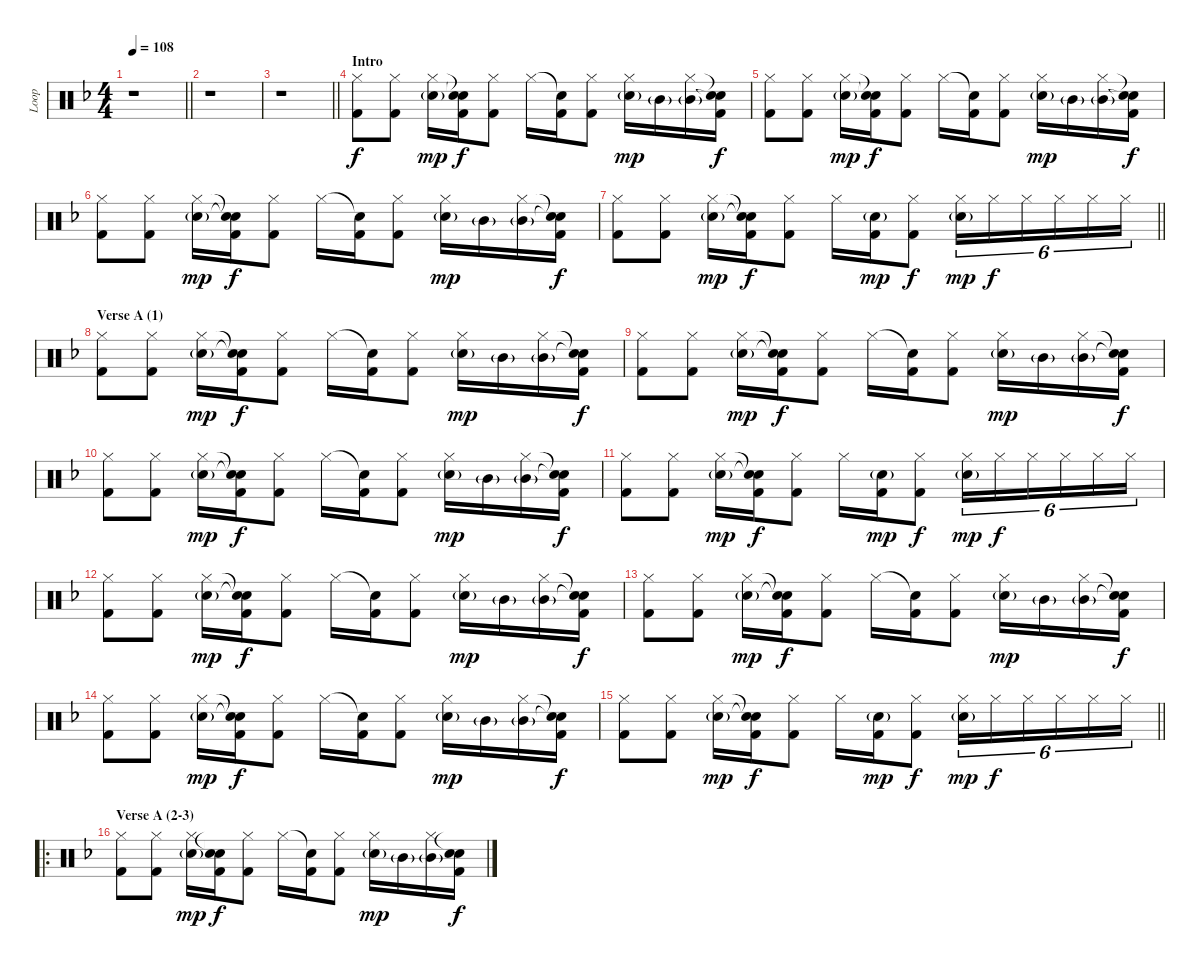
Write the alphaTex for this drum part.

\track ("Loop" "Loop") {instrument percussion}
\staff {score}
\articulation defaults
\ts (4 4)
\tempo 108
\clef neutral
\barLineRight lightlight
\ks dminor
r.1{dy f} |
r.1 |
\barLineRight lightlight
r.1 |
\section ("" "Intro")
("Hi-Hat (closed)" "Kick (hit) 2").8 ("Hi-Hat (closed)" "Kick (hit) 2").8 ("Hi-Hat (closed)" "Electric Snare (hit)"{g}).16{dy mp} ("Snare (hit)"{t} "Snare (hit)"{t} "Kick (hit) 2").16{dy f} ("Hi-Hat (closed)" "Kick (hit) 2").8 "Hi-Hat (closed)".16 ("Snare (hit)"{t} "Kick (hit) 2").16 ("Hi-Hat (closed)" "Kick (hit) 2").8 ("Hi-Hat (closed)" "Electric Snare (hit)"{g}).16{dy mp} "Mid Tom (hit)"{g}.16 ("Hi-Hat (closed)" "Mid Tom (hit)"{g}).16 ("Snare (hit)"{t} "Snare (hit)"{t} "Kick (hit) 2").16{dy f} |
("Hi-Hat (closed)" "Kick (hit) 2").8 ("Hi-Hat (closed)" "Kick (hit) 2").8 ("Hi-Hat (closed)" "Electric Snare (hit)"{g}).16{dy mp} ("Snare (hit)"{t} "Snare (hit)"{t} "Kick (hit) 2").16{dy f} ("Hi-Hat (closed)" "Kick (hit) 2").8 "Hi-Hat (closed)".16 ("Snare (hit)"{t} "Kick (hit) 2").16 ("Hi-Hat (closed)" "Kick (hit) 2").8 ("Hi-Hat (closed)" "Electric Snare (hit)"{g}).16{dy mp} "Mid Tom (hit)"{g}.16 ("Hi-Hat (closed)" "Mid Tom (hit)"{g}).16 ("Snare (hit)"{t} "Snare (hit)"{t} "Kick (hit) 2").16{dy f} |
("Hi-Hat (closed)" "Kick (hit) 2").8 ("Hi-Hat (closed)" "Kick (hit) 2").8 ("Hi-Hat (closed)" "Electric Snare (hit)"{g}).16{dy mp} ("Snare (hit)"{t} "Snare (hit)"{t} "Kick (hit) 2").16{dy f} ("Hi-Hat (closed)" "Kick (hit) 2").8 "Hi-Hat (closed)".16 ("Snare (hit)"{t} "Kick (hit) 2").16 ("Hi-Hat (closed)" "Kick (hit) 2").8 ("Hi-Hat (closed)" "Electric Snare (hit)"{g}).16{dy mp} "Mid Tom (hit)"{g}.16 ("Hi-Hat (closed)" "Mid Tom (hit)"{g}).16 ("Snare (hit)"{t} "Snare (hit)"{t} "Kick (hit) 2").16{dy f} |
\barLineRight lightlight
("Hi-Hat (closed)" "Kick (hit) 2").8 ("Hi-Hat (closed)" "Kick (hit) 2").8 ("Hi-Hat (closed)" "Electric Snare (hit)"{g}).16{dy mp} ("Snare (hit)"{t} "Snare (hit)"{t} "Kick (hit) 2").16{dy f} ("Hi-Hat (closed)" "Kick (hit) 2").8 "Hi-Hat (closed)".16 ("Electric Snare (hit)"{g} "Kick (hit) 2").16{dy mp} ("Hi-Hat (closed)" "Kick (hit) 2").8{dy f} ("Hi-Hat (closed)" "Electric Snare (hit)"{g}).16{tu (6 4) dy mp} "Hi-Hat (closed)".16{tu (6 4) dy f} "Hi-Hat (closed)".16{tu (6 4)} "Hi-Hat (closed)".16{tu (6 4)} "Hi-Hat (closed)".16{tu (6 4)} "Hi-Hat (closed)".16{tu (6 4)} |
\section ("" "Verse A (1)")
("Hi-Hat (closed)" "Kick (hit) 2").8 ("Hi-Hat (closed)" "Kick (hit) 2").8 ("Hi-Hat (closed)" "Electric Snare (hit)"{g}).16{dy mp} ("Snare (hit)"{t} "Snare (hit)"{t} "Kick (hit) 2").16{dy f} ("Hi-Hat (closed)" "Kick (hit) 2").8 "Hi-Hat (closed)".16 ("Snare (hit)"{t} "Kick (hit) 2").16 ("Hi-Hat (closed)" "Kick (hit) 2").8 ("Hi-Hat (closed)" "Electric Snare (hit)"{g}).16{dy mp} "Mid Tom (hit)"{g}.16 ("Hi-Hat (closed)" "Mid Tom (hit)"{g}).16 ("Snare (hit)"{t} "Snare (hit)"{t} "Kick (hit) 2").16{dy f} |
("Hi-Hat (closed)" "Kick (hit) 2").8 ("Hi-Hat (closed)" "Kick (hit) 2").8 ("Hi-Hat (closed)" "Electric Snare (hit)"{g}).16{dy mp} ("Snare (hit)"{t} "Snare (hit)"{t} "Kick (hit) 2").16{dy f} ("Hi-Hat (closed)" "Kick (hit) 2").8 "Hi-Hat (closed)".16 ("Snare (hit)"{t} "Kick (hit) 2").16 ("Hi-Hat (closed)" "Kick (hit) 2").8 ("Hi-Hat (closed)" "Electric Snare (hit)"{g}).16{dy mp} "Mid Tom (hit)"{g}.16 ("Hi-Hat (closed)" "Mid Tom (hit)"{g}).16 ("Snare (hit)"{t} "Snare (hit)"{t} "Kick (hit) 2").16{dy f} |
("Hi-Hat (closed)" "Kick (hit) 2").8 ("Hi-Hat (closed)" "Kick (hit) 2").8 ("Hi-Hat (closed)" "Electric Snare (hit)"{g}).16{dy mp} ("Snare (hit)"{t} "Snare (hit)"{t} "Kick (hit) 2").16{dy f} ("Hi-Hat (closed)" "Kick (hit) 2").8 "Hi-Hat (closed)".16 ("Snare (hit)"{t} "Kick (hit) 2").16 ("Hi-Hat (closed)" "Kick (hit) 2").8 ("Hi-Hat (closed)" "Electric Snare (hit)"{g}).16{dy mp} "Mid Tom (hit)"{g}.16 ("Hi-Hat (closed)" "Mid Tom (hit)"{g}).16 ("Snare (hit)"{t} "Snare (hit)"{t} "Kick (hit) 2").16{dy f} |
("Hi-Hat (closed)" "Kick (hit) 2").8 ("Hi-Hat (closed)" "Kick (hit) 2").8 ("Hi-Hat (closed)" "Electric Snare (hit)"{g}).16{dy mp} ("Snare (hit)"{t} "Snare (hit)"{t} "Kick (hit) 2").16{dy f} ("Hi-Hat (closed)" "Kick (hit) 2").8 "Hi-Hat (closed)".16 ("Electric Snare (hit)"{g} "Kick (hit) 2").16{dy mp} ("Hi-Hat (closed)" "Kick (hit) 2").8{dy f} ("Hi-Hat (closed)" "Electric Snare (hit)"{g}).16{tu (6 4) dy mp} "Hi-Hat (closed)".16{tu (6 4) dy f} "Hi-Hat (closed)".16{tu (6 4)} "Hi-Hat (closed)".16{tu (6 4)} "Hi-Hat (closed)".16{tu (6 4)} "Hi-Hat (closed)".16{tu (6 4)} |
("Hi-Hat (closed)" "Kick (hit) 2").8 ("Hi-Hat (closed)" "Kick (hit) 2").8 ("Hi-Hat (closed)" "Electric Snare (hit)"{g}).16{dy mp} ("Snare (hit)"{t} "Snare (hit)"{t} "Kick (hit) 2").16{dy f} ("Hi-Hat (closed)" "Kick (hit) 2").8 "Hi-Hat (closed)".16 ("Snare (hit)"{t} "Kick (hit) 2").16 ("Hi-Hat (closed)" "Kick (hit) 2").8 ("Hi-Hat (closed)" "Electric Snare (hit)"{g}).16{dy mp} "Mid Tom (hit)"{g}.16 ("Hi-Hat (closed)" "Mid Tom (hit)"{g}).16 ("Snare (hit)"{t} "Snare (hit)"{t} "Kick (hit) 2").16{dy f} |
("Hi-Hat (closed)" "Kick (hit) 2").8 ("Hi-Hat (closed)" "Kick (hit) 2").8 ("Hi-Hat (closed)" "Electric Snare (hit)"{g}).16{dy mp} ("Snare (hit)"{t} "Snare (hit)"{t} "Kick (hit) 2").16{dy f} ("Hi-Hat (closed)" "Kick (hit) 2").8 "Hi-Hat (closed)".16 ("Snare (hit)"{t} "Kick (hit) 2").16 ("Hi-Hat (closed)" "Kick (hit) 2").8 ("Hi-Hat (closed)" "Electric Snare (hit)"{g}).16{dy mp} "Mid Tom (hit)"{g}.16 ("Hi-Hat (closed)" "Mid Tom (hit)"{g}).16 ("Snare (hit)"{t} "Snare (hit)"{t} "Kick (hit) 2").16{dy f} |
("Hi-Hat (closed)" "Kick (hit) 2").8 ("Hi-Hat (closed)" "Kick (hit) 2").8 ("Hi-Hat (closed)" "Electric Snare (hit)"{g}).16{dy mp} ("Snare (hit)"{t} "Snare (hit)"{t} "Kick (hit) 2").16{dy f} ("Hi-Hat (closed)" "Kick (hit) 2").8 "Hi-Hat (closed)".16 ("Snare (hit)"{t} "Kick (hit) 2").16 ("Hi-Hat (closed)" "Kick (hit) 2").8 ("Hi-Hat (closed)" "Electric Snare (hit)"{g}).16{dy mp} "Mid Tom (hit)"{g}.16 ("Hi-Hat (closed)" "Mid Tom (hit)"{g}).16 ("Snare (hit)"{t} "Snare (hit)"{t} "Kick (hit) 2").16{dy f} |
\barLineRight lightlight
("Hi-Hat (closed)" "Kick (hit) 2").8 ("Hi-Hat (closed)" "Kick (hit) 2").8 ("Hi-Hat (closed)" "Electric Snare (hit)"{g}).16{dy mp} ("Snare (hit)"{t} "Snare (hit)"{t} "Kick (hit) 2").16{dy f} ("Hi-Hat (closed)" "Kick (hit) 2").8 "Hi-Hat (closed)".16 ("Electric Snare (hit)"{g} "Kick (hit) 2").16{dy mp} ("Hi-Hat (closed)" "Kick (hit) 2").8{dy f} ("Hi-Hat (closed)" "Electric Snare (hit)"{g}).16{tu (6 4) dy mp} "Hi-Hat (closed)".16{tu (6 4) dy f} "Hi-Hat (closed)".16{tu (6 4)} "Hi-Hat (closed)".16{tu (6 4)} "Hi-Hat (closed)".16{tu (6 4)} "Hi-Hat (closed)".16{tu (6 4)} |
\ro
\section ("" "Verse A (2-3)")
("Hi-Hat (closed)" "Kick (hit) 2").8 ("Hi-Hat (closed)" "Kick (hit) 2").8 ("Hi-Hat (closed)" "Electric Snare (hit)"{g}).16{dy mp} ("Snare (hit)"{t} "Snare (hit)"{t} "Kick (hit) 2").16{dy f} ("Hi-Hat (closed)" "Kick (hit) 2").8 "Hi-Hat (closed)".16 ("Snare (hit)"{t} "Kick (hit) 2").16 ("Hi-Hat (closed)" "Kick (hit) 2").8 ("Hi-Hat (closed)" "Electric Snare (hit)"{g}).16{dy mp} "Mid Tom (hit)"{g}.16 ("Hi-Hat (closed)" "Mid Tom (hit)"{g}).16 ("Snare (hit)"{t} "Snare (hit)"{t} "Kick (hit) 2").16{dy f}
